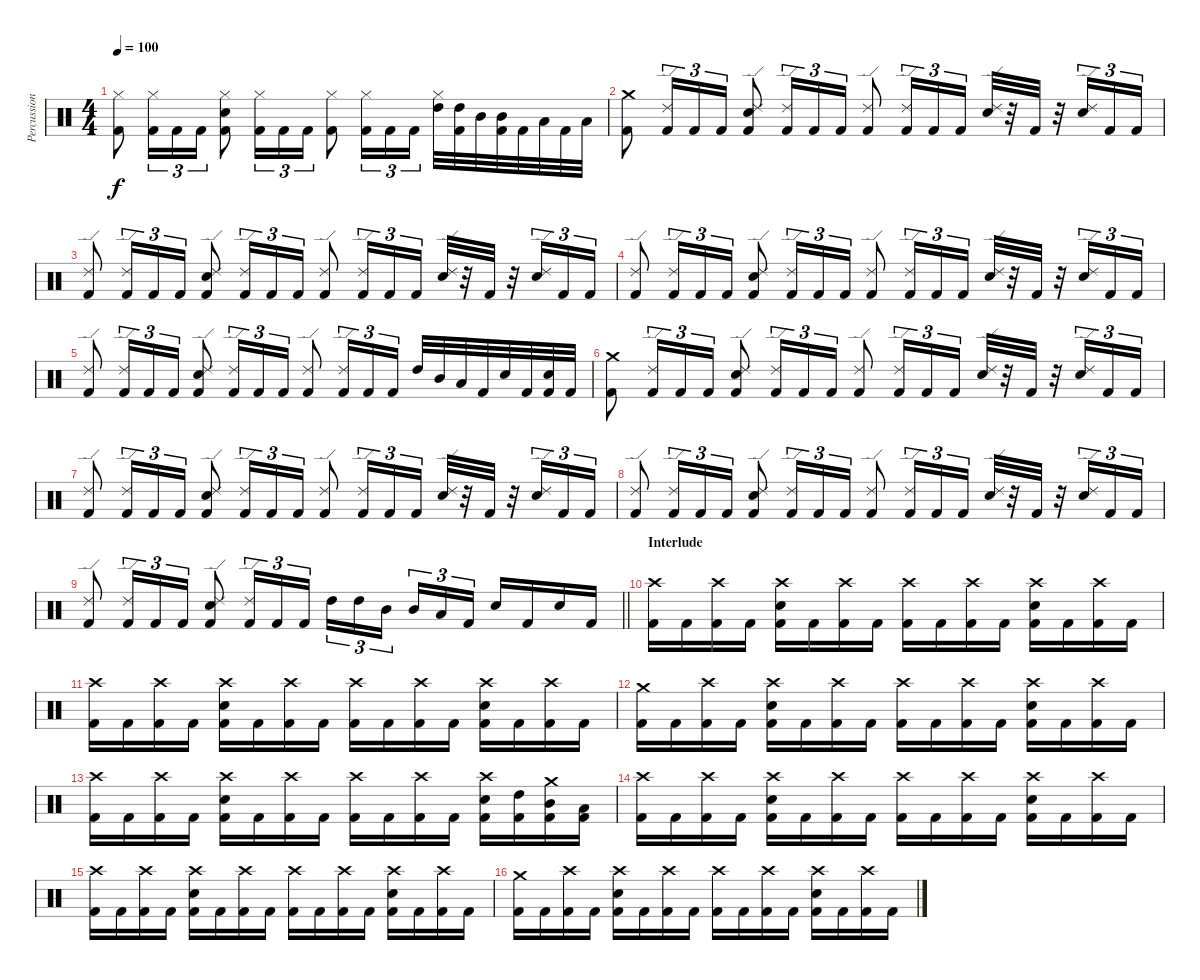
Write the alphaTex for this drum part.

\track ("Percussion" "Percussion") {instrument percussion}
\staff {score}
\articulation defaults
\ts (4 4)
\tempo 100
\clef neutral
\ks c
("Hi-Hat (closed)" "Kick (hit) 2").8{dy f} ("Hi-Hat (closed)" "Kick (hit) 2").16{tu (3 2)} "Kick (hit) 2".16{tu (3 2)} "Kick (hit) 2".16{tu (3 2)} ("Hi-Hat (closed)" "Electric Snare (hit)" "Kick (hit) 2").8 ("Hi-Hat (closed)" "Kick (hit) 2").16{tu (3 2)} "Kick (hit) 2".16{tu (3 2)} "Kick (hit) 2".16{tu (3 2)} ("Hi-Hat (closed)" "Kick (hit) 2").8 ("Hi-Hat (closed)" "Kick (hit) 2").16{tu (3 2)} "Kick (hit) 2".16{tu (3 2)} "Kick (hit) 2".16{tu (3 2)} ("Hi-Hat (closed)" "High Tom (hit)").32 ("High Tom (hit)" "Kick (hit) 2").32 "Mid Tom (hit)".32 ("Mid Tom (hit)" "Kick (hit) 2").32 "Kick (hit) 2".32 "Low Tom (hit)".32 "Kick (hit) 2".32 "Low Tom (hit)".32 |
("Crash medium (hit)" "Kick (hit) 2").8 ("Ride (edge) 2" "Kick (hit) 2").16{tu (3 2)} "Kick (hit) 2".16{tu (3 2)} "Kick (hit) 2".16{tu (3 2)} ("Ride (edge) 2" "Electric Snare (hit)" "Kick (hit) 2").8 ("Ride (edge) 2" "Kick (hit) 2").16{tu (3 2)} "Kick (hit) 2".16{tu (3 2)} "Kick (hit) 2".16{tu (3 2)} ("Ride (edge) 2" "Kick (hit) 2").8 ("Ride (edge) 2" "Kick (hit) 2").16{tu (3 2)} "Kick (hit) 2".16{tu (3 2)} "Kick (hit) 2".16{tu (3 2)} ("Ride (edge) 2" "Electric Snare (hit)").32 r.32 "Kick (hit) 2".32 r.32 ("Ride (edge) 2" "Electric Snare (hit)").16{tu (3 2)} "Kick (hit) 2".16{tu (3 2)} "Kick (hit) 2".16{tu (3 2)} |
("Ride (edge) 2" "Kick (hit) 2").8 ("Ride (edge) 2" "Kick (hit) 2").16{tu (3 2)} "Kick (hit) 2".16{tu (3 2)} "Kick (hit) 2".16{tu (3 2)} ("Ride (edge) 2" "Electric Snare (hit)" "Kick (hit) 2").8 ("Ride (edge) 2" "Kick (hit) 2").16{tu (3 2)} "Kick (hit) 2".16{tu (3 2)} "Kick (hit) 2".16{tu (3 2)} ("Ride (edge) 2" "Kick (hit) 2").8 ("Ride (edge) 2" "Kick (hit) 2").16{tu (3 2)} "Kick (hit) 2".16{tu (3 2)} "Kick (hit) 2".16{tu (3 2)} ("Ride (edge) 2" "Electric Snare (hit)").32 r.32 "Kick (hit) 2".32 r.32 ("Ride (edge) 2" "Electric Snare (hit)").16{tu (3 2)} "Kick (hit) 2".16{tu (3 2)} "Kick (hit) 2".16{tu (3 2)} |
("Ride (edge) 2" "Kick (hit) 2").8 ("Ride (edge) 2" "Kick (hit) 2").16{tu (3 2)} "Kick (hit) 2".16{tu (3 2)} "Kick (hit) 2".16{tu (3 2)} ("Ride (edge) 2" "Electric Snare (hit)" "Kick (hit) 2").8 ("Ride (edge) 2" "Kick (hit) 2").16{tu (3 2)} "Kick (hit) 2".16{tu (3 2)} "Kick (hit) 2".16{tu (3 2)} ("Ride (edge) 2" "Kick (hit) 2").8 ("Ride (edge) 2" "Kick (hit) 2").16{tu (3 2)} "Kick (hit) 2".16{tu (3 2)} "Kick (hit) 2".16{tu (3 2)} ("Ride (edge) 2" "Electric Snare (hit)").32 r.32 "Kick (hit) 2".32 r.32 ("Ride (edge) 2" "Electric Snare (hit)").16{tu (3 2)} "Kick (hit) 2".16{tu (3 2)} "Kick (hit) 2".16{tu (3 2)} |
("Ride (edge) 2" "Kick (hit) 2").8 ("Ride (edge) 2" "Kick (hit) 2").16{tu (3 2)} "Kick (hit) 2".16{tu (3 2)} "Kick (hit) 2".16{tu (3 2)} ("Ride (edge) 2" "Electric Snare (hit)" "Kick (hit) 2").8 ("Ride (edge) 2" "Kick (hit) 2").16{tu (3 2)} "Kick (hit) 2".16{tu (3 2)} "Kick (hit) 2".16{tu (3 2)} ("Ride (edge) 2" "Kick (hit) 2").8 ("Ride (edge) 2" "Kick (hit) 2").16{tu (3 2)} "Kick (hit) 2".16{tu (3 2)} "Kick (hit) 2".16{tu (3 2)} "High Tom (hit)".32 "Mid Tom (hit)".32 "Low Tom (hit)".32 "Kick (hit) 2".32 "Electric Snare (hit)".32 "Kick (hit) 2".32 ("Electric Snare (hit)" "Kick (hit) 2").32 "Kick (hit) 2".32 |
("Crash medium (hit)" "Kick (hit) 2").8 ("Ride (edge) 2" "Kick (hit) 2").16{tu (3 2)} "Kick (hit) 2".16{tu (3 2)} "Kick (hit) 2".16{tu (3 2)} ("Ride (edge) 2" "Electric Snare (hit)" "Kick (hit) 2").8 ("Ride (edge) 2" "Kick (hit) 2").16{tu (3 2)} "Kick (hit) 2".16{tu (3 2)} "Kick (hit) 2".16{tu (3 2)} ("Ride (edge) 2" "Kick (hit) 2").8 ("Ride (edge) 2" "Kick (hit) 2").16{tu (3 2)} "Kick (hit) 2".16{tu (3 2)} "Kick (hit) 2".16{tu (3 2)} ("Ride (edge) 2" "Electric Snare (hit)").32 r.32 "Kick (hit) 2".32 r.32 ("Ride (edge) 2" "Electric Snare (hit)").16{tu (3 2)} "Kick (hit) 2".16{tu (3 2)} "Kick (hit) 2".16{tu (3 2)} |
("Ride (edge) 2" "Kick (hit) 2").8 ("Ride (edge) 2" "Kick (hit) 2").16{tu (3 2)} "Kick (hit) 2".16{tu (3 2)} "Kick (hit) 2".16{tu (3 2)} ("Ride (edge) 2" "Electric Snare (hit)" "Kick (hit) 2").8 ("Ride (edge) 2" "Kick (hit) 2").16{tu (3 2)} "Kick (hit) 2".16{tu (3 2)} "Kick (hit) 2".16{tu (3 2)} ("Ride (edge) 2" "Kick (hit) 2").8 ("Ride (edge) 2" "Kick (hit) 2").16{tu (3 2)} "Kick (hit) 2".16{tu (3 2)} "Kick (hit) 2".16{tu (3 2)} ("Ride (edge) 2" "Electric Snare (hit)").32 r.32 "Kick (hit) 2".32 r.32 ("Ride (edge) 2" "Electric Snare (hit)").16{tu (3 2)} "Kick (hit) 2".16{tu (3 2)} "Kick (hit) 2".16{tu (3 2)} |
("Ride (edge) 2" "Kick (hit) 2").8 ("Ride (edge) 2" "Kick (hit) 2").16{tu (3 2)} "Kick (hit) 2".16{tu (3 2)} "Kick (hit) 2".16{tu (3 2)} ("Ride (edge) 2" "Electric Snare (hit)" "Kick (hit) 2").8 ("Ride (edge) 2" "Kick (hit) 2").16{tu (3 2)} "Kick (hit) 2".16{tu (3 2)} "Kick (hit) 2".16{tu (3 2)} ("Ride (edge) 2" "Kick (hit) 2").8 ("Ride (edge) 2" "Kick (hit) 2").16{tu (3 2)} "Kick (hit) 2".16{tu (3 2)} "Kick (hit) 2".16{tu (3 2)} ("Ride (edge) 2" "Electric Snare (hit)").32 r.32 "Kick (hit) 2".32 r.32 ("Ride (edge) 2" "Electric Snare (hit)").16{tu (3 2)} "Kick (hit) 2".16{tu (3 2)} "Kick (hit) 2".16{tu (3 2)} |
\barLineRight lightlight
("Ride (edge) 2" "Kick (hit) 2").8 ("Ride (edge) 2" "Kick (hit) 2").16{tu (3 2)} "Kick (hit) 2".16{tu (3 2)} "Kick (hit) 2".16{tu (3 2)} ("Ride (edge) 2" "Electric Snare (hit)" "Kick (hit) 2").8 ("Ride (edge) 2" "Kick (hit) 2").16{tu (3 2)} "Kick (hit) 2".16{tu (3 2)} "Kick (hit) 2".16{tu (3 2)} "High Tom (hit)".16{tu (3 2)} "High Tom (hit)".16{tu (3 2)} "Mid Tom (hit)".16{tu (3 2) beam splitsecondary} "Mid Tom (hit)".16{tu (3 2)} "Low Tom (hit)".16{tu (3 2)} "Kick (hit) 2".16{tu (3 2)} "Electric Snare (hit)".16 "Kick (hit) 2".16 "Electric Snare (hit)".16 "Kick (hit) 2".16 |
\section ("" "Interlude")
("Crash high (hit)" "Kick (hit) 2").16 "Kick (hit) 2".16 ("Crash high (hit)" "Kick (hit) 2").16 "Kick (hit) 2".16 ("Crash high (hit)" "Electric Snare (hit)" "Kick (hit) 2").16 "Kick (hit) 2".16 ("Crash high (hit)" "Kick (hit) 2").16 "Kick (hit) 2".16 ("Crash high (hit)" "Kick (hit) 2").16 "Kick (hit) 2".16 ("Crash high (hit)" "Kick (hit) 2").16 "Kick (hit) 2".16 ("Crash high (hit)" "Electric Snare (hit)" "Kick (hit) 2").16 "Kick (hit) 2".16 ("Crash high (hit)" "Kick (hit) 2").16 "Kick (hit) 2".16 |
("Crash high (hit)" "Kick (hit) 2").16 "Kick (hit) 2".16 ("Crash high (hit)" "Kick (hit) 2").16 "Kick (hit) 2".16 ("Crash high (hit)" "Electric Snare (hit)" "Kick (hit) 2").16 "Kick (hit) 2".16 ("Crash high (hit)" "Kick (hit) 2").16 "Kick (hit) 2".16 ("Crash high (hit)" "Kick (hit) 2").16 "Kick (hit) 2".16 ("Crash high (hit)" "Kick (hit) 2").16 "Kick (hit) 2".16 ("Crash high (hit)" "Electric Snare (hit)" "Kick (hit) 2").16 "Kick (hit) 2".16 ("Crash high (hit)" "Kick (hit) 2").16 "Kick (hit) 2".16 |
("Crash medium (hit)" "Kick (hit) 2").16 "Kick (hit) 2".16 ("Crash high (hit)" "Kick (hit) 2").16 "Kick (hit) 2".16 ("Crash high (hit)" "Electric Snare (hit)" "Kick (hit) 2").16 "Kick (hit) 2".16 ("Crash high (hit)" "Kick (hit) 2").16 "Kick (hit) 2".16 ("Crash high (hit)" "Kick (hit) 2").16 "Kick (hit) 2".16 ("Crash high (hit)" "Kick (hit) 2").16 "Kick (hit) 2".16 ("Crash high (hit)" "Electric Snare (hit)" "Kick (hit) 2").16 "Kick (hit) 2".16 ("Crash high (hit)" "Kick (hit) 2").16 "Kick (hit) 2".16 |
("Crash high (hit)" "Kick (hit) 2").16 "Kick (hit) 2".16 ("Crash high (hit)" "Kick (hit) 2").16 "Kick (hit) 2".16 ("Crash high (hit)" "Electric Snare (hit)" "Kick (hit) 2").16 "Kick (hit) 2".16 ("Crash high (hit)" "Kick (hit) 2").16 "Kick (hit) 2".16 ("Crash high (hit)" "Kick (hit) 2").16 "Kick (hit) 2".16 ("Crash high (hit)" "Kick (hit) 2").16 "Kick (hit) 2".16 ("Crash high (hit)" "Electric Snare (hit)" "Kick (hit) 2").16 ("High Tom (hit)" "Kick (hit) 2").16 ("Crash medium (hit)" "Mid Tom (hit)" "Kick (hit) 2").16 ("Low Tom (hit)" "Kick (hit) 2").16 |
("Crash high (hit)" "Kick (hit) 2").16 "Kick (hit) 2".16 ("Crash high (hit)" "Kick (hit) 2").16 "Kick (hit) 2".16 ("Crash high (hit)" "Electric Snare (hit)" "Kick (hit) 2").16 "Kick (hit) 2".16 ("Crash high (hit)" "Kick (hit) 2").16 "Kick (hit) 2".16 ("Crash high (hit)" "Kick (hit) 2").16 "Kick (hit) 2".16 ("Crash high (hit)" "Kick (hit) 2").16 "Kick (hit) 2".16 ("Crash high (hit)" "Electric Snare (hit)" "Kick (hit) 2").16 "Kick (hit) 2".16 ("Crash high (hit)" "Kick (hit) 2").16 "Kick (hit) 2".16 |
("Crash high (hit)" "Kick (hit) 2").16 "Kick (hit) 2".16 ("Crash high (hit)" "Kick (hit) 2").16 "Kick (hit) 2".16 ("Crash high (hit)" "Electric Snare (hit)" "Kick (hit) 2").16 "Kick (hit) 2".16 ("Crash high (hit)" "Kick (hit) 2").16 "Kick (hit) 2".16 ("Crash high (hit)" "Kick (hit) 2").16 "Kick (hit) 2".16 ("Crash high (hit)" "Kick (hit) 2").16 "Kick (hit) 2".16 ("Crash high (hit)" "Electric Snare (hit)" "Kick (hit) 2").16 "Kick (hit) 2".16 ("Crash high (hit)" "Kick (hit) 2").16 "Kick (hit) 2".16 |
("Crash medium (hit)" "Kick (hit) 2").16 "Kick (hit) 2".16 ("Crash high (hit)" "Kick (hit) 2").16 "Kick (hit) 2".16 ("Crash high (hit)" "Electric Snare (hit)" "Kick (hit) 2").16 "Kick (hit) 2".16 ("Crash high (hit)" "Kick (hit) 2").16 "Kick (hit) 2".16 ("Crash high (hit)" "Kick (hit) 2").16 "Kick (hit) 2".16 ("Crash high (hit)" "Kick (hit) 2").16 "Kick (hit) 2".16 ("Crash high (hit)" "Electric Snare (hit)" "Kick (hit) 2").16 "Kick (hit) 2".16 ("Crash high (hit)" "Kick (hit) 2").16 "Kick (hit) 2".16
